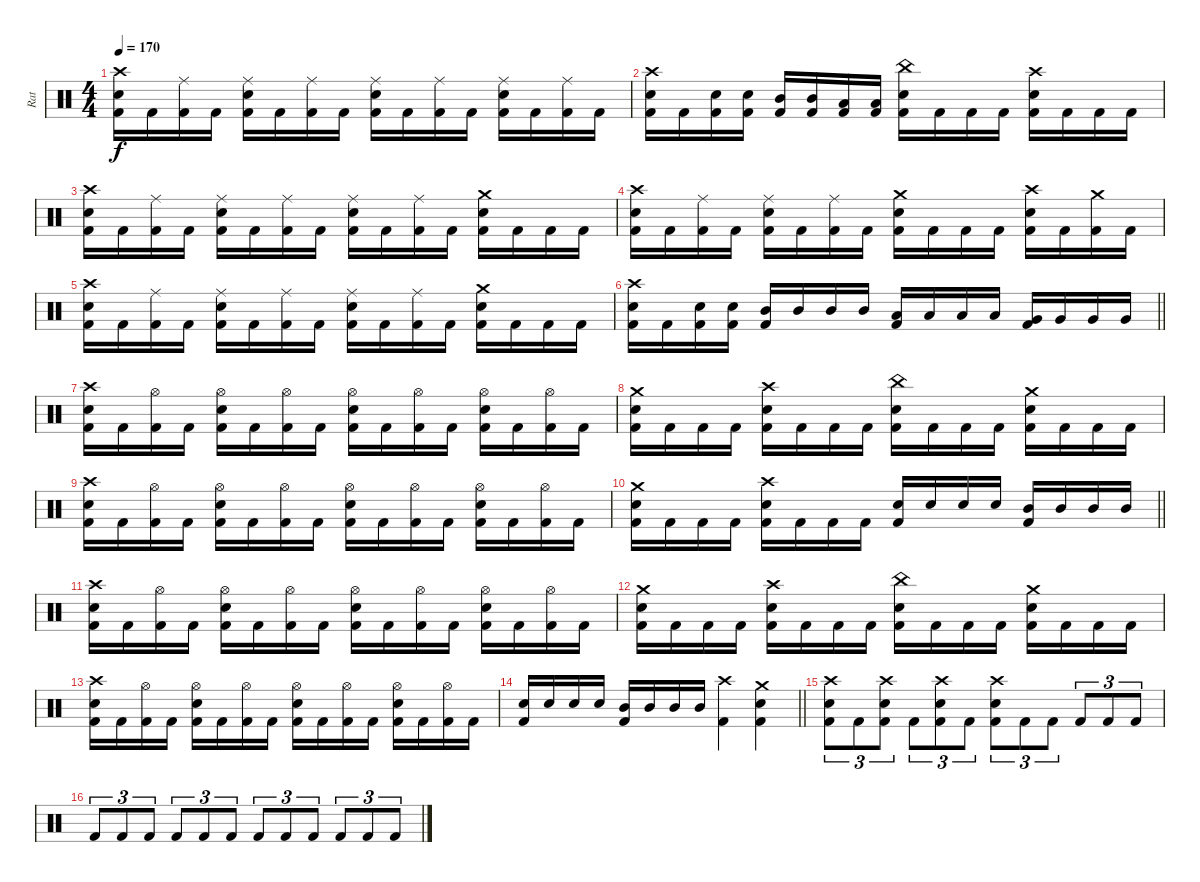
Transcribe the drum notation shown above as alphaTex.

\track ("Rat" "Rat") {instrument percussion}
\staff {score}
\articulation defaults
\ts (4 4)
\tempo 170
\clef neutral
\ks c
("Crash high (hit)" "Electric Snare (hit)" "Kick (hit) 2").16{dy f} "Kick (hit) 2".16 ("Ride (middle)" "Kick (hit) 2").16 "Kick (hit) 2".16 ("Ride (middle)" "Electric Snare (hit)" "Kick (hit) 2").16 "Kick (hit) 2".16 ("Ride (middle)" "Kick (hit) 2").16 "Kick (hit) 2".16 ("Ride (middle)" "Electric Snare (hit)" "Kick (hit) 2").16 "Kick (hit) 2".16 ("Ride (middle)" "Kick (hit) 2").16 "Kick (hit) 2".16 ("Ride (middle)" "Electric Snare (hit)" "Kick (hit) 2").16 "Kick (hit) 2".16 ("Ride (middle)" "Kick (hit) 2").16 "Kick (hit) 2".16 |
("Crash high (hit)" "Electric Snare (hit)" "Kick (hit) 2").16 "Kick (hit) 2".16 ("Electric Snare (hit)" "Kick (hit) 2").16 ("Electric Snare (hit)" "Kick (hit) 2").16 ("Mid Tom (hit)" "Kick (hit) 2").16 ("Mid Tom (hit)" "Kick (hit) 2").16 ("Low Tom (hit)" "Kick (hit) 2").16 ("Low Tom (hit)" "Kick (hit) 2").16 ("China (hit)" "Electric Snare (hit)" "Kick (hit) 2").16 "Kick (hit) 2".16 "Kick (hit) 2".16 "Kick (hit) 2".16 ("Crash high (hit)" "Electric Snare (hit)" "Kick (hit) 2").16 "Kick (hit) 2".16 "Kick (hit) 2".16 "Kick (hit) 2".16 |
("Crash high (hit)" "Electric Snare (hit)" "Kick (hit) 2").16 "Kick (hit) 2".16 ("Ride (middle)" "Kick (hit) 2").16 "Kick (hit) 2".16 ("Ride (middle)" "Electric Snare (hit)" "Kick (hit) 2").16 "Kick (hit) 2".16 ("Ride (middle)" "Kick (hit) 2").16 "Kick (hit) 2".16 ("Ride (middle)" "Electric Snare (hit)" "Kick (hit) 2").16 "Kick (hit) 2".16 ("Ride (middle)" "Kick (hit) 2").16 "Kick (hit) 2".16 ("Crash medium (hit)" "Electric Snare (hit)" "Kick (hit) 2").16 "Kick (hit) 2".16 "Kick (hit) 2".16 "Kick (hit) 2".16 |
("Crash high (hit)" "Electric Snare (hit)" "Kick (hit) 2").16 "Kick (hit) 2".16 ("Ride (middle)" "Kick (hit) 2").16 "Kick (hit) 2".16 ("Ride (middle)" "Electric Snare (hit)" "Kick (hit) 2").16 "Kick (hit) 2".16 ("Ride (middle)" "Kick (hit) 2").16 "Kick (hit) 2".16 ("Crash medium (hit)" "Electric Snare (hit)" "Kick (hit) 2").16 "Kick (hit) 2".16 "Kick (hit) 2".16 "Kick (hit) 2".16 ("Crash high (hit)" "Electric Snare (hit)" "Kick (hit) 2").16 "Kick (hit) 2".16 ("Crash medium (hit)" "Kick (hit) 2").16 "Kick (hit) 2".16 |
("Crash high (hit)" "Electric Snare (hit)" "Kick (hit) 2").16 "Kick (hit) 2".16 ("Ride (middle)" "Kick (hit) 2").16 "Kick (hit) 2".16 ("Ride (middle)" "Electric Snare (hit)" "Kick (hit) 2").16 "Kick (hit) 2".16 ("Ride (middle)" "Kick (hit) 2").16 "Kick (hit) 2".16 ("Ride (middle)" "Electric Snare (hit)" "Kick (hit) 2").16 "Kick (hit) 2".16 ("Ride (middle)" "Kick (hit) 2").16 "Kick (hit) 2".16 ("Crash medium (hit)" "Electric Snare (hit)" "Kick (hit) 2").16 "Kick (hit) 2".16 "Kick (hit) 2".16 "Kick (hit) 2".16 |
\barLineRight lightlight
("Crash high (hit)" "Electric Snare (hit)" "Kick (hit) 2").16 "Kick (hit) 2".16 ("Electric Snare (hit)" "Kick (hit) 2").16 ("Electric Snare (hit)" "Kick (hit) 2").16 ("Mid Tom (hit)" "Kick (hit) 2").16 "Mid Tom (hit)".16 "Mid Tom (hit)".16 "Mid Tom (hit)".16 ("Low Tom (hit)" "Kick (hit) 2").16 "Low Tom (hit)".16 "Low Tom (hit)".16 "Low Tom (hit)".16 ("Very Low Tom (hit)" "Kick (hit) 2").16 "Very Low Tom (hit)".16 "Very Low Tom (hit)".16 "Very Low Tom (hit)".16 |
("Crash high (hit)" "Electric Snare (hit)" "Kick (hit) 2").16 "Kick (hit) 2".16 ("Hi-Hat (open)" "Kick (hit) 2").16 "Kick (hit) 2".16 ("Hi-Hat (open)" "Electric Snare (hit)" "Kick (hit) 2").16 "Kick (hit) 2".16 ("Hi-Hat (open)" "Kick (hit) 2").16 "Kick (hit) 2".16 ("Hi-Hat (open)" "Electric Snare (hit)" "Kick (hit) 2").16 "Kick (hit) 2".16 ("Hi-Hat (open)" "Kick (hit) 2").16 "Kick (hit) 2".16 ("Hi-Hat (open)" "Electric Snare (hit)" "Kick (hit) 2").16 "Kick (hit) 2".16 ("Hi-Hat (open)" "Kick (hit) 2").16 "Kick (hit) 2".16 |
("Crash medium (hit)" "Electric Snare (hit)" "Kick (hit) 2").16 "Kick (hit) 2".16 "Kick (hit) 2".16 "Kick (hit) 2".16 ("Crash high (hit)" "Electric Snare (hit)" "Kick (hit) 2").16 "Kick (hit) 2".16 "Kick (hit) 2".16 "Kick (hit) 2".16 ("China (hit)" "Electric Snare (hit)" "Kick (hit) 2").16 "Kick (hit) 2".16 "Kick (hit) 2".16 "Kick (hit) 2".16 ("Crash medium (hit)" "Electric Snare (hit)" "Kick (hit) 2").16 "Kick (hit) 2".16 "Kick (hit) 2".16 "Kick (hit) 2".16 |
("Crash high (hit)" "Electric Snare (hit)" "Kick (hit) 2").16 "Kick (hit) 2".16 ("Hi-Hat (open)" "Kick (hit) 2").16 "Kick (hit) 2".16 ("Hi-Hat (open)" "Electric Snare (hit)" "Kick (hit) 2").16 "Kick (hit) 2".16 ("Hi-Hat (open)" "Kick (hit) 2").16 "Kick (hit) 2".16 ("Hi-Hat (open)" "Electric Snare (hit)" "Kick (hit) 2").16 "Kick (hit) 2".16 ("Hi-Hat (open)" "Kick (hit) 2").16 "Kick (hit) 2".16 ("Hi-Hat (open)" "Electric Snare (hit)" "Kick (hit) 2").16 "Kick (hit) 2".16 ("Hi-Hat (open)" "Kick (hit) 2").16 "Kick (hit) 2".16 |
\barLineRight lightlight
("Crash medium (hit)" "Electric Snare (hit)" "Kick (hit) 2").16 "Kick (hit) 2".16 "Kick (hit) 2".16 "Kick (hit) 2".16 ("Crash high (hit)" "Electric Snare (hit)" "Kick (hit) 2").16 "Kick (hit) 2".16 "Kick (hit) 2".16 "Kick (hit) 2".16 ("Electric Snare (hit)" "Kick (hit) 2").16 "Electric Snare (hit)".16 "Electric Snare (hit)".16 "Electric Snare (hit)".16 ("Mid Tom (hit)" "Kick (hit) 2").16 "Mid Tom (hit)".16 "Mid Tom (hit)".16 "Mid Tom (hit)".16 |
("Crash high (hit)" "Electric Snare (hit)" "Kick (hit) 2").16 "Kick (hit) 2".16 ("Hi-Hat (open)" "Kick (hit) 2").16 "Kick (hit) 2".16 ("Hi-Hat (open)" "Electric Snare (hit)" "Kick (hit) 2").16 "Kick (hit) 2".16 ("Hi-Hat (open)" "Kick (hit) 2").16 "Kick (hit) 2".16 ("Hi-Hat (open)" "Electric Snare (hit)" "Kick (hit) 2").16 "Kick (hit) 2".16 ("Hi-Hat (open)" "Kick (hit) 2").16 "Kick (hit) 2".16 ("Hi-Hat (open)" "Electric Snare (hit)" "Kick (hit) 2").16 "Kick (hit) 2".16 ("Hi-Hat (open)" "Kick (hit) 2").16 "Kick (hit) 2".16 |
("Crash medium (hit)" "Electric Snare (hit)" "Kick (hit) 2").16 "Kick (hit) 2".16 "Kick (hit) 2".16 "Kick (hit) 2".16 ("Crash high (hit)" "Electric Snare (hit)" "Kick (hit) 2").16 "Kick (hit) 2".16 "Kick (hit) 2".16 "Kick (hit) 2".16 ("China (hit)" "Electric Snare (hit)" "Kick (hit) 2").16 "Kick (hit) 2".16 "Kick (hit) 2".16 "Kick (hit) 2".16 ("Crash medium (hit)" "Electric Snare (hit)" "Kick (hit) 2").16 "Kick (hit) 2".16 "Kick (hit) 2".16 "Kick (hit) 2".16 |
("Crash high (hit)" "Electric Snare (hit)" "Kick (hit) 2").16 "Kick (hit) 2".16 ("Hi-Hat (open)" "Kick (hit) 2").16 "Kick (hit) 2".16 ("Hi-Hat (open)" "Electric Snare (hit)" "Kick (hit) 2").16 "Kick (hit) 2".16 ("Hi-Hat (open)" "Kick (hit) 2").16 "Kick (hit) 2".16 ("Hi-Hat (open)" "Electric Snare (hit)" "Kick (hit) 2").16 "Kick (hit) 2".16 ("Hi-Hat (open)" "Kick (hit) 2").16 "Kick (hit) 2".16 ("Hi-Hat (open)" "Electric Snare (hit)" "Kick (hit) 2").16 "Kick (hit) 2".16 ("Hi-Hat (open)" "Kick (hit) 2").16 "Kick (hit) 2".16 |
\barLineRight lightlight
("Electric Snare (hit)" "Kick (hit) 2").16 "Electric Snare (hit)".16 "Electric Snare (hit)".16 "Electric Snare (hit)".16 ("Mid Tom (hit)" "Kick (hit) 2").16 "Mid Tom (hit)".16 "Mid Tom (hit)".16 "Mid Tom (hit)".16 ("Crash high (hit)" "Kick (hit) 2").4 ("Crash medium (hit)" "Electric Snare (hit)" "Kick (hit) 2").4 |
("Crash high (hit)" "Snare (hit) 2" "Kick (hit) 2").8{tu (3 2)} "Kick (hit) 2".8{tu (3 2)} ("Crash high (hit)" "Snare (hit) 2" "Kick (hit) 2").8{tu (3 2)} "Kick (hit) 2".8{tu (3 2)} ("Crash high (hit)" "Snare (hit) 2" "Kick (hit) 2").8{tu (3 2)} "Kick (hit) 2".8{tu (3 2)} ("Crash high (hit)" "Snare (hit) 2" "Kick (hit) 2").8{tu (3 2)} "Kick (hit) 2".8{tu (3 2)} "Kick (hit) 2".8{tu (3 2)} "Kick (hit) 2".8{tu (3 2)} "Kick (hit) 2".8{tu (3 2)} "Kick (hit) 2".8{tu (3 2)} |
"Kick (hit) 2".8{tu (3 2)} "Kick (hit) 2".8{tu (3 2)} "Kick (hit) 2".8{tu (3 2)} "Kick (hit) 2".8{tu (3 2)} "Kick (hit) 2".8{tu (3 2)} "Kick (hit) 2".8{tu (3 2)} "Kick (hit) 2".8{tu (3 2)} "Kick (hit) 2".8{tu (3 2)} "Kick (hit) 2".8{tu (3 2)} "Kick (hit) 2".8{tu (3 2)} "Kick (hit) 2".8{tu (3 2)} "Kick (hit) 2".8{tu (3 2)}
